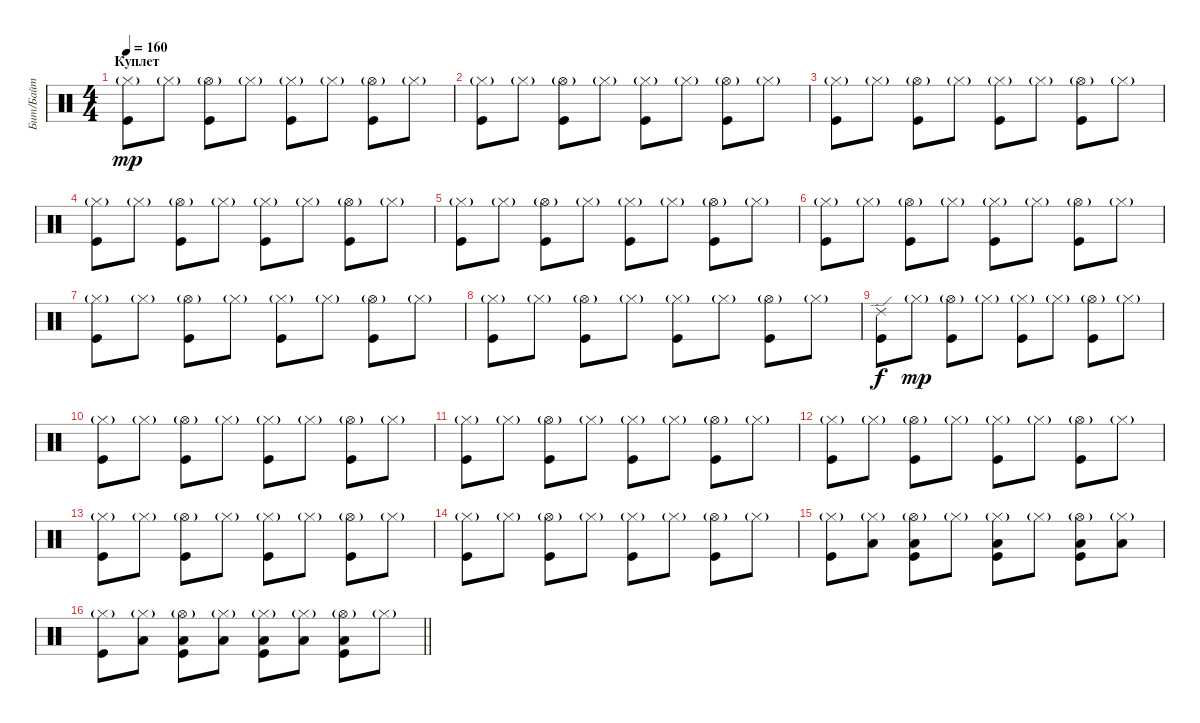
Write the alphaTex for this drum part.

\track ("Бит/Байт" "Бит/Байт") {instrument percussion}
\staff {score}
\articulation defaults
\ts (4 4)
\section ("" "Куплет")
\tempo 160
\clef neutral
\ks c
("Hi-Hat (closed)"{g} "Kick (hit)").8{dy mp} "Hi-Hat (closed)"{g}.8 ("Hi-Hat (open)"{g} "Kick (hit)").8 "Hi-Hat (closed)"{g}.8 ("Hi-Hat (closed)"{g} "Kick (hit)").8 "Hi-Hat (closed)"{g}.8 ("Hi-Hat (open)"{g} "Kick (hit)").8 "Hi-Hat (closed)"{g}.8 |
("Hi-Hat (closed)"{g} "Kick (hit)").8 "Hi-Hat (closed)"{g}.8 ("Hi-Hat (open)"{g} "Kick (hit)").8 "Hi-Hat (closed)"{g}.8 ("Hi-Hat (closed)"{g} "Kick (hit)").8 "Hi-Hat (closed)"{g}.8 ("Hi-Hat (open)"{g} "Kick (hit)").8 "Hi-Hat (closed)"{g}.8 |
("Hi-Hat (closed)"{g} "Kick (hit)").8 "Hi-Hat (closed)"{g}.8 ("Hi-Hat (open)"{g} "Kick (hit)").8 "Hi-Hat (closed)"{g}.8 ("Hi-Hat (closed)"{g} "Kick (hit)").8 "Hi-Hat (closed)"{g}.8 ("Hi-Hat (open)"{g} "Kick (hit)").8 "Hi-Hat (closed)"{g}.8 |
("Hi-Hat (closed)"{g} "Kick (hit)").8 "Hi-Hat (closed)"{g}.8 ("Hi-Hat (open)"{g} "Kick (hit)").8 "Hi-Hat (closed)"{g}.8 ("Hi-Hat (closed)"{g} "Kick (hit)").8 "Hi-Hat (closed)"{g}.8 ("Hi-Hat (open)"{g} "Kick (hit)").8 "Hi-Hat (closed)"{g}.8 |
("Hi-Hat (closed)"{g} "Kick (hit)").8 "Hi-Hat (closed)"{g}.8 ("Hi-Hat (open)"{g} "Kick (hit)").8 "Hi-Hat (closed)"{g}.8 ("Hi-Hat (closed)"{g} "Kick (hit)").8 "Hi-Hat (closed)"{g}.8 ("Hi-Hat (open)"{g} "Kick (hit)").8 "Hi-Hat (closed)"{g}.8 |
("Hi-Hat (closed)"{g} "Kick (hit)").8 "Hi-Hat (closed)"{g}.8 ("Hi-Hat (open)"{g} "Kick (hit)").8 "Hi-Hat (closed)"{g}.8 ("Hi-Hat (closed)"{g} "Kick (hit)").8 "Hi-Hat (closed)"{g}.8 ("Hi-Hat (open)"{g} "Kick (hit)").8 "Hi-Hat (closed)"{g}.8 |
("Hi-Hat (closed)"{g} "Kick (hit)").8 "Hi-Hat (closed)"{g}.8 ("Hi-Hat (open)"{g} "Kick (hit)").8 "Hi-Hat (closed)"{g}.8 ("Hi-Hat (closed)"{g} "Kick (hit)").8 "Hi-Hat (closed)"{g}.8 ("Hi-Hat (open)"{g} "Kick (hit)").8 "Hi-Hat (closed)"{g}.8 |
("Hi-Hat (closed)"{g} "Kick (hit)").8 "Hi-Hat (closed)"{g}.8 ("Hi-Hat (open)"{g} "Kick (hit)").8 "Hi-Hat (closed)"{g}.8 ("Hi-Hat (closed)"{g} "Kick (hit)").8 "Hi-Hat (closed)"{g}.8 ("Hi-Hat (open)"{g} "Kick (hit)").8 "Hi-Hat (closed)"{g}.8 |
("Ride (edge) 2" "Kick (hit)").8{dy f} "Hi-Hat (closed)"{g}.8{dy mp} ("Hi-Hat (open)"{g} "Kick (hit)").8 "Hi-Hat (closed)"{g}.8 ("Hi-Hat (closed)"{g} "Kick (hit)").8 "Hi-Hat (closed)"{g}.8 ("Hi-Hat (open)"{g} "Kick (hit)").8 "Hi-Hat (closed)"{g}.8 |
("Hi-Hat (closed)"{g} "Kick (hit)").8 "Hi-Hat (closed)"{g}.8 ("Hi-Hat (open)"{g} "Kick (hit)").8 "Hi-Hat (closed)"{g}.8 ("Hi-Hat (closed)"{g} "Kick (hit)").8 "Hi-Hat (closed)"{g}.8 ("Hi-Hat (open)"{g} "Kick (hit)").8 "Hi-Hat (closed)"{g}.8 |
("Hi-Hat (closed)"{g} "Kick (hit)").8 "Hi-Hat (closed)"{g}.8 ("Hi-Hat (open)"{g} "Kick (hit)").8 "Hi-Hat (closed)"{g}.8 ("Hi-Hat (closed)"{g} "Kick (hit)").8 "Hi-Hat (closed)"{g}.8 ("Hi-Hat (open)"{g} "Kick (hit)").8 "Hi-Hat (closed)"{g}.8 |
("Hi-Hat (closed)"{g} "Kick (hit)").8 "Hi-Hat (closed)"{g}.8 ("Hi-Hat (open)"{g} "Kick (hit)").8 "Hi-Hat (closed)"{g}.8 ("Hi-Hat (closed)"{g} "Kick (hit)").8 "Hi-Hat (closed)"{g}.8 ("Hi-Hat (open)"{g} "Kick (hit)").8 "Hi-Hat (closed)"{g}.8 |
("Hi-Hat (closed)"{g} "Kick (hit)").8 "Hi-Hat (closed)"{g}.8 ("Hi-Hat (open)"{g} "Kick (hit)").8 "Hi-Hat (closed)"{g}.8 ("Hi-Hat (closed)"{g} "Kick (hit)").8 "Hi-Hat (closed)"{g}.8 ("Hi-Hat (open)"{g} "Kick (hit)").8 "Hi-Hat (closed)"{g}.8 |
("Hi-Hat (closed)"{g} "Kick (hit)").8 "Hi-Hat (closed)"{g}.8 ("Hi-Hat (open)"{g} "Kick (hit)").8 "Hi-Hat (closed)"{g}.8 ("Hi-Hat (closed)"{g} "Kick (hit)").8 "Hi-Hat (closed)"{g}.8 ("Hi-Hat (open)"{g} "Kick (hit)").8 "Hi-Hat (closed)"{g}.8 |
("Hi-Hat (closed)"{g} "Kick (hit)").8 ("Hi-Hat (closed)"{g} "Low Tom (hit)").8 ("Hi-Hat (open)"{g} "Low Tom (hit)" "Kick (hit)").8 "Hi-Hat (closed)"{g}.8 ("Hi-Hat (closed)"{g} "Low Tom (hit)" "Kick (hit)").8 "Hi-Hat (closed)"{g}.8 ("Hi-Hat (open)"{g} "Low Tom (hit)" "Kick (hit)").8 ("Hi-Hat (closed)"{g} "Low Tom (hit)").8 |
\barLineRight lightlight
("Hi-Hat (closed)"{g} "Kick (hit)").8 ("Hi-Hat (closed)"{g} "Low Tom (hit)").8 ("Hi-Hat (open)"{g} "Low Tom (hit)" "Kick (hit)").8 ("Hi-Hat (closed)"{g} "Low Tom (hit)").8 ("Hi-Hat (closed)"{g} "Low Tom (hit)" "Kick (hit)").8 ("Hi-Hat (closed)"{g} "Low Tom (hit)").8 ("Hi-Hat (open)"{g} "Low Tom (hit)" "Kick (hit)").8 "Hi-Hat (closed)"{g}.8
